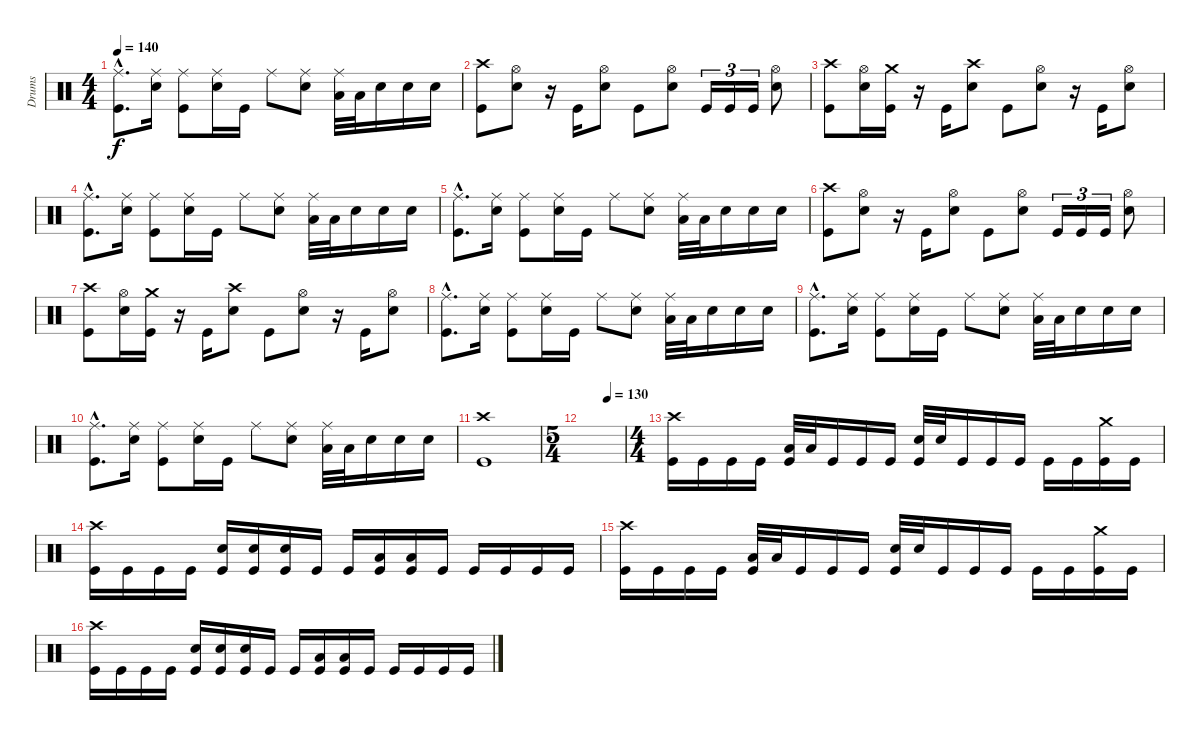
\track ("Drums" "Drums") {instrument percussion}
\staff {score}
\articulation defaults
\ts (4 4)
\tempo 140
\clef neutral
\ks c
("Kick (hit)"{hac} "Ride (middle)"{hac}).8{d dy f} ("Snare (hit) 2" "Ride (middle)").16 ("Kick (hit)" "Ride (middle)").8 ("Snare (hit) 2" "Ride (middle)").16 "Kick (hit)".16 "Ride (middle)".8 ("Snare (hit) 2" "Ride (middle)").8 ("Low Tom (hit)" "Ride (middle)").32 "Low Tom (hit)".32 "Snare (hit) 2".16 "Snare (hit) 2".16 "Snare (hit) 2".16 |
("Kick (hit)" "Crash high (hit)").8 ("Snare (hit) 2" "Hi-Hat (open)").8 r.16 "Kick (hit)".16 ("Snare (hit) 2" "Hi-Hat (open)").8 "Kick (hit)".8 ("Snare (hit) 2" "Hi-Hat (open)").8 "Kick (hit)".16{tu (3 2)} "Kick (hit)".16{tu (3 2)} "Kick (hit)".16{tu (3 2)} ("Snare (hit) 2" "Hi-Hat (open)").8 |
("Kick (hit)" "Crash high (hit)").8 ("Snare (hit) 2" "Hi-Hat (open)").16 ("Kick (hit)" "Crash medium (hit)").16 r.16 "Kick (hit)".16 ("Snare (hit) 2" "Crash high (hit)").8 "Kick (hit)".8 ("Snare (hit) 2" "Hi-Hat (open)").8 r.16 "Kick (hit)".16 ("Snare (hit) 2" "Hi-Hat (open)").8 |
("Kick (hit)"{hac} "Ride (middle)"{hac}).8{d} ("Snare (hit) 2" "Ride (middle)").16 ("Kick (hit)" "Ride (middle)").8 ("Snare (hit) 2" "Ride (middle)").16 "Kick (hit)".16 "Ride (middle)".8 ("Snare (hit) 2" "Ride (middle)").8 ("Low Tom (hit)" "Ride (middle)").32 "Low Tom (hit)".32 "Snare (hit) 2".16 "Snare (hit) 2".16 "Snare (hit) 2".16 |
("Kick (hit)"{hac} "Ride (middle)"{hac}).8{d} ("Snare (hit) 2" "Ride (middle)").16 ("Kick (hit)" "Ride (middle)").8 ("Snare (hit) 2" "Ride (middle)").16 "Kick (hit)".16 "Ride (middle)".8 ("Snare (hit) 2" "Ride (middle)").8 ("Low Tom (hit)" "Ride (middle)").32 "Low Tom (hit)".32 "Snare (hit) 2".16 "Snare (hit) 2".16 "Snare (hit) 2".16 |
("Kick (hit)" "Crash high (hit)").8 ("Snare (hit) 2" "Hi-Hat (open)").8 r.16 "Kick (hit)".16 ("Snare (hit) 2" "Hi-Hat (open)").8 "Kick (hit)".8 ("Snare (hit) 2" "Hi-Hat (open)").8 "Kick (hit)".16{tu (3 2)} "Kick (hit)".16{tu (3 2)} "Kick (hit)".16{tu (3 2)} ("Snare (hit) 2" "Hi-Hat (open)").8 |
("Kick (hit)" "Crash high (hit)").8 ("Snare (hit) 2" "Hi-Hat (open)").16 ("Kick (hit)" "Crash medium (hit)").16 r.16 "Kick (hit)".16 ("Snare (hit) 2" "Crash high (hit)").8 "Kick (hit)".8 ("Snare (hit) 2" "Hi-Hat (open)").8 r.16 "Kick (hit)".16 ("Snare (hit) 2" "Hi-Hat (open)").8 |
("Kick (hit)"{hac} "Ride (middle)"{hac}).8{d} ("Snare (hit) 2" "Ride (middle)").16 ("Kick (hit)" "Ride (middle)").8 ("Snare (hit) 2" "Ride (middle)").16 "Kick (hit)".16 "Ride (middle)".8 ("Snare (hit) 2" "Ride (middle)").8 ("Low Tom (hit)" "Ride (middle)").32 "Low Tom (hit)".32 "Snare (hit) 2".16 "Snare (hit) 2".16 "Snare (hit) 2".16 |
("Kick (hit)"{hac} "Ride (middle)"{hac}).8{d} ("Snare (hit) 2" "Ride (middle)").16 ("Kick (hit)" "Ride (middle)").8 ("Snare (hit) 2" "Ride (middle)").16 "Kick (hit)".16 "Ride (middle)".8 ("Snare (hit) 2" "Ride (middle)").8 ("Low Tom (hit)" "Ride (middle)").32 "Low Tom (hit)".32 "Snare (hit) 2".16 "Snare (hit) 2".16 "Snare (hit) 2".16 |
("Kick (hit)"{hac} "Ride (middle)"{hac}).8{d} ("Snare (hit) 2" "Ride (middle)").16 ("Kick (hit)" "Ride (middle)").8 ("Snare (hit) 2" "Ride (middle)").16 "Kick (hit)".16 "Ride (middle)".8 ("Snare (hit) 2" "Ride (middle)").8 ("Low Tom (hit)" "Ride (middle)").32 "Low Tom (hit)".32 "Snare (hit) 2".16 "Snare (hit) 2".16 "Snare (hit) 2".16 |
("Kick (hit)" "Crash high (hit)").1 |
\ts (5 4)
\tempo (130 0.6)
|
\ts (4 4)
("Kick (hit)" "Crash high (hit)").16 "Kick (hit)".16 "Kick (hit)".16 "Kick (hit)".16 ("Kick (hit)" "Low Tom (hit)").32 "Low Tom (hit)".32 "Kick (hit)".16 "Kick (hit)".16 "Kick (hit)".16 ("Kick (hit)" "Snare (hit) 2").32 "Snare (hit) 2".32 "Kick (hit)".16 "Kick (hit)".16 "Kick (hit)".16 "Kick (hit)".16 "Kick (hit)".16 ("Kick (hit)" "Crash medium (hit)").16 "Kick (hit)".16 |
("Kick (hit)" "Crash high (hit)").16 "Kick (hit)".16 "Kick (hit)".16 "Kick (hit)".16 ("Kick (hit)" "Snare (hit) 2").16 ("Kick (hit)" "Snare (hit) 2").16 ("Kick (hit)" "Snare (hit) 2").16 "Kick (hit)".16 "Kick (hit)".16 ("Kick (hit)" "Low Tom (hit)").16 ("Kick (hit)" "Low Tom (hit)").16 "Kick (hit)".16 "Kick (hit)".16 "Kick (hit)".16 "Kick (hit)".16 "Kick (hit)".16 |
("Kick (hit)" "Crash high (hit)").16 "Kick (hit)".16 "Kick (hit)".16 "Kick (hit)".16 ("Kick (hit)" "Low Tom (hit)").32 "Low Tom (hit)".32 "Kick (hit)".16 "Kick (hit)".16 "Kick (hit)".16 ("Kick (hit)" "Snare (hit) 2").32 "Snare (hit) 2".32 "Kick (hit)".16 "Kick (hit)".16 "Kick (hit)".16 "Kick (hit)".16 "Kick (hit)".16 ("Kick (hit)" "Crash medium (hit)").16 "Kick (hit)".16 |
("Kick (hit)" "Crash high (hit)").16 "Kick (hit)".16 "Kick (hit)".16 "Kick (hit)".16 ("Kick (hit)" "Snare (hit) 2").16 ("Kick (hit)" "Snare (hit) 2").16 ("Kick (hit)" "Snare (hit) 2").16 "Kick (hit)".16 "Kick (hit)".16 ("Kick (hit)" "Low Tom (hit)").16 ("Kick (hit)" "Low Tom (hit)").16 "Kick (hit)".16 "Kick (hit)".16 "Kick (hit)".16 "Kick (hit)".16 "Kick (hit)".16
